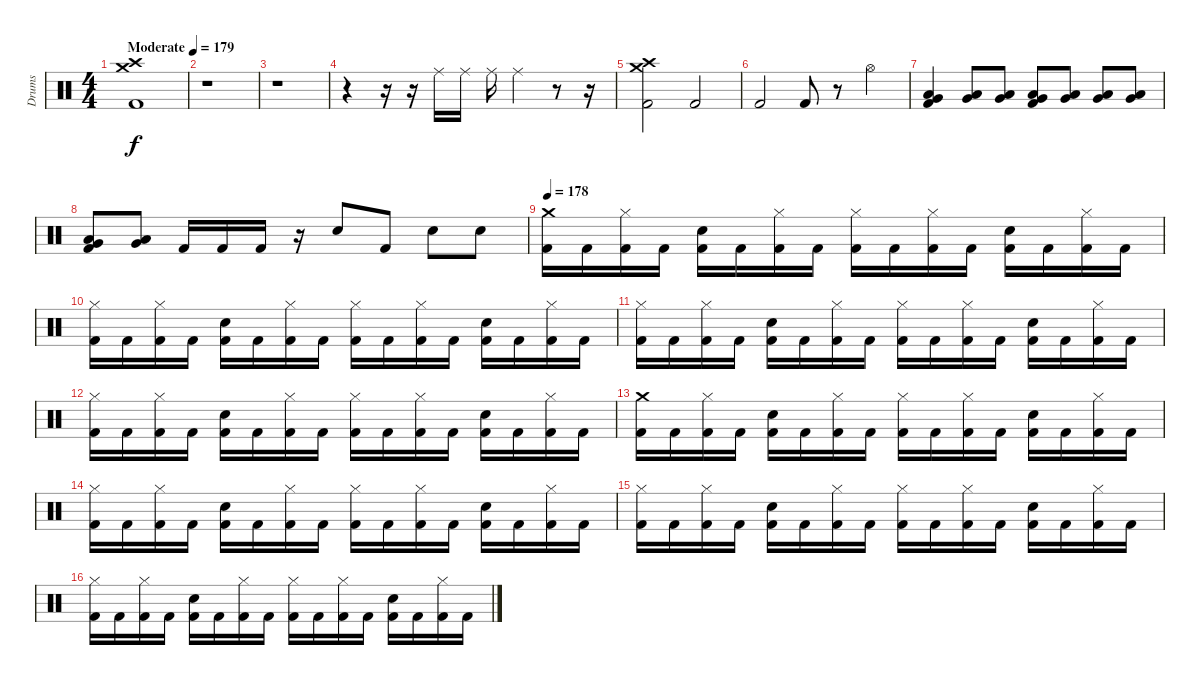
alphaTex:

\track ("Drums" "Drums") {instrument percussion}
\staff {score}
\articulation defaults
\ts (4 4)
\tempo (179 "Moderate")
\clef neutral
\ks c
("Crash high (hit)" "Crash medium (hit)" "Kick (hit) 2").1{dy f} |
r.1 |
r.1 |
r.4 r.16 r.16 "Ride (middle)".16 "Ride (middle)".16 "Ride (middle)".16 "Ride (middle)".4 r.8 r.16 |
("Crash high (hit)" "Crash medium (hit)" "Kick (hit) 2").2 "Kick (hit) 2".2 |
"Kick (hit) 2".2 "Kick (hit) 2".8 r.8 "Hi-Hat (open)".4 |
("Low Tom (hit)" "Very Low Tom (hit)" "Kick (hit) 2").4 ("Low Tom (hit)" "Very Low Tom (hit)").8 ("Low Tom (hit)" "Very Low Tom (hit)").8 ("Low Tom (hit)" "Very Low Tom (hit)" "Kick (hit) 2").8 ("Low Tom (hit)" "Very Low Tom (hit)").8 ("Low Tom (hit)" "Very Low Tom (hit)").8 ("Low Tom (hit)" "Very Low Tom (hit)").8 |
("Low Tom (hit)" "Very Low Tom (hit)" "Kick (hit) 2").8 ("Low Tom (hit)" "Very Low Tom (hit)").8 "Kick (hit) 2".16 "Kick (hit) 2".16 "Kick (hit) 2".16 r.16 "Electric Snare (hit)".8 "Kick (hit) 2".8 "Electric Snare (hit)".8 "Electric Snare (hit)".8 |
\tempo 178
("Crash medium (hit)" "Kick (hit) 2").16 "Kick (hit) 2".16 ("Hi-Hat (closed)" "Kick (hit) 2").16 "Kick (hit) 2".16 ("Electric Snare (hit)" "Kick (hit) 2").16 "Kick (hit) 2".16 ("Hi-Hat (closed)" "Kick (hit) 2").16 "Kick (hit) 2".16 ("Hi-Hat (closed)" "Kick (hit) 2").16 "Kick (hit) 2".16 ("Hi-Hat (closed)" "Kick (hit) 2").16 "Kick (hit) 2".16 ("Electric Snare (hit)" "Kick (hit) 2").16 "Kick (hit) 2".16 ("Hi-Hat (closed)" "Kick (hit) 2").16 "Kick (hit) 2".16 |
("Hi-Hat (closed)" "Kick (hit) 2").16 "Kick (hit) 2".16 ("Hi-Hat (closed)" "Kick (hit) 2").16 "Kick (hit) 2".16 ("Electric Snare (hit)" "Kick (hit) 2").16 "Kick (hit) 2".16 ("Hi-Hat (closed)" "Kick (hit) 2").16 "Kick (hit) 2".16 ("Hi-Hat (closed)" "Kick (hit) 2").16 "Kick (hit) 2".16 ("Hi-Hat (closed)" "Kick (hit) 2").16 "Kick (hit) 2".16 ("Electric Snare (hit)" "Kick (hit) 2").16 "Kick (hit) 2".16 ("Hi-Hat (closed)" "Kick (hit) 2").16 "Kick (hit) 2".16 |
("Hi-Hat (closed)" "Kick (hit) 2").16 "Kick (hit) 2".16 ("Hi-Hat (closed)" "Kick (hit) 2").16 "Kick (hit) 2".16 ("Electric Snare (hit)" "Kick (hit) 2").16 "Kick (hit) 2".16 ("Hi-Hat (closed)" "Kick (hit) 2").16 "Kick (hit) 2".16 ("Hi-Hat (closed)" "Kick (hit) 2").16 "Kick (hit) 2".16 ("Hi-Hat (closed)" "Kick (hit) 2").16 "Kick (hit) 2".16 ("Electric Snare (hit)" "Kick (hit) 2").16 "Kick (hit) 2".16 ("Hi-Hat (closed)" "Kick (hit) 2").16 "Kick (hit) 2".16 |
("Hi-Hat (closed)" "Kick (hit) 2").16 "Kick (hit) 2".16 ("Hi-Hat (closed)" "Kick (hit) 2").16 "Kick (hit) 2".16 ("Electric Snare (hit)" "Kick (hit) 2").16 "Kick (hit) 2".16 ("Hi-Hat (closed)" "Kick (hit) 2").16 "Kick (hit) 2".16 ("Hi-Hat (closed)" "Kick (hit) 2").16 "Kick (hit) 2".16 ("Hi-Hat (closed)" "Kick (hit) 2").16 "Kick (hit) 2".16 ("Electric Snare (hit)" "Kick (hit) 2").16 "Kick (hit) 2".16 ("Hi-Hat (closed)" "Kick (hit) 2").16 "Kick (hit) 2".16 |
("Crash medium (hit)" "Kick (hit) 2").16 "Kick (hit) 2".16 ("Hi-Hat (closed)" "Kick (hit) 2").16 "Kick (hit) 2".16 ("Electric Snare (hit)" "Kick (hit) 2").16 "Kick (hit) 2".16 ("Hi-Hat (closed)" "Kick (hit) 2").16 "Kick (hit) 2".16 ("Hi-Hat (closed)" "Kick (hit) 2").16 "Kick (hit) 2".16 ("Hi-Hat (closed)" "Kick (hit) 2").16 "Kick (hit) 2".16 ("Electric Snare (hit)" "Kick (hit) 2").16 "Kick (hit) 2".16 ("Hi-Hat (closed)" "Kick (hit) 2").16 "Kick (hit) 2".16 |
("Hi-Hat (closed)" "Kick (hit) 2").16 "Kick (hit) 2".16 ("Hi-Hat (closed)" "Kick (hit) 2").16 "Kick (hit) 2".16 ("Electric Snare (hit)" "Kick (hit) 2").16 "Kick (hit) 2".16 ("Hi-Hat (closed)" "Kick (hit) 2").16 "Kick (hit) 2".16 ("Hi-Hat (closed)" "Kick (hit) 2").16 "Kick (hit) 2".16 ("Hi-Hat (closed)" "Kick (hit) 2").16 "Kick (hit) 2".16 ("Electric Snare (hit)" "Kick (hit) 2").16 "Kick (hit) 2".16 ("Hi-Hat (closed)" "Kick (hit) 2").16 "Kick (hit) 2".16 |
("Hi-Hat (closed)" "Kick (hit) 2").16 "Kick (hit) 2".16 ("Hi-Hat (closed)" "Kick (hit) 2").16 "Kick (hit) 2".16 ("Electric Snare (hit)" "Kick (hit) 2").16 "Kick (hit) 2".16 ("Hi-Hat (closed)" "Kick (hit) 2").16 "Kick (hit) 2".16 ("Hi-Hat (closed)" "Kick (hit) 2").16 "Kick (hit) 2".16 ("Hi-Hat (closed)" "Kick (hit) 2").16 "Kick (hit) 2".16 ("Electric Snare (hit)" "Kick (hit) 2").16 "Kick (hit) 2".16 ("Hi-Hat (closed)" "Kick (hit) 2").16 "Kick (hit) 2".16 |
("Hi-Hat (closed)" "Kick (hit) 2").16 "Kick (hit) 2".16 ("Hi-Hat (closed)" "Kick (hit) 2").16 "Kick (hit) 2".16 ("Electric Snare (hit)" "Kick (hit) 2").16 "Kick (hit) 2".16 ("Hi-Hat (closed)" "Kick (hit) 2").16 "Kick (hit) 2".16 ("Hi-Hat (closed)" "Kick (hit) 2").16 "Kick (hit) 2".16 ("Hi-Hat (closed)" "Kick (hit) 2").16 "Kick (hit) 2".16 ("Electric Snare (hit)" "Kick (hit) 2").16 "Kick (hit) 2".16 ("Hi-Hat (closed)" "Kick (hit) 2").16 "Kick (hit) 2".16
